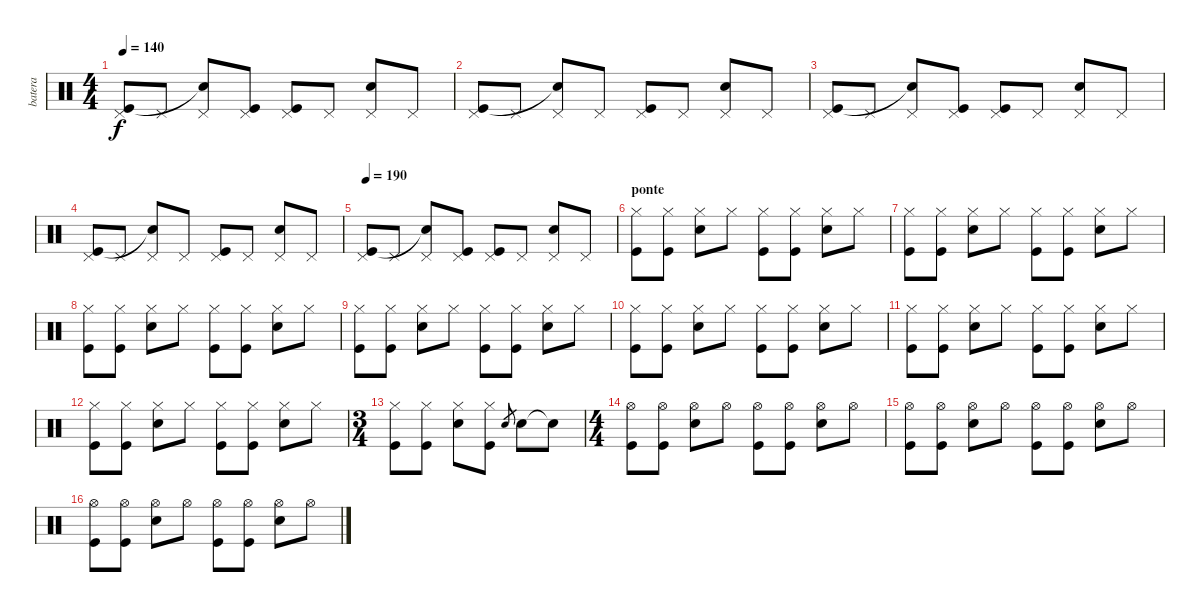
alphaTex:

\track ("batera" "batera") {instrument percussion}
\staff {score}
\articulation defaults
\ts (4 4)
\tempo 140
\clef neutral
\ks c
("Pedal Hi-Hat (hit)" "Kick (hit)").8{dy f} "Pedal Hi-Hat (hit)".8 ("Pedal Hi-Hat (hit)" "Snare (hit)"{t}).8 ("Pedal Hi-Hat (hit)" "Kick (hit)").8 ("Pedal Hi-Hat (hit)" "Kick (hit)").8 "Pedal Hi-Hat (hit)".8 ("Pedal Hi-Hat (hit)" "Snare (hit) 2").8 "Pedal Hi-Hat (hit)".8 |
("Pedal Hi-Hat (hit)" "Kick (hit)").8 "Pedal Hi-Hat (hit)".8 ("Pedal Hi-Hat (hit)" "Snare (hit)"{t}).8 "Pedal Hi-Hat (hit)".8 ("Pedal Hi-Hat (hit)" "Kick (hit)").8 "Pedal Hi-Hat (hit)".8 ("Pedal Hi-Hat (hit)" "Snare (hit) 2").8 "Pedal Hi-Hat (hit)".8 |
("Pedal Hi-Hat (hit)" "Kick (hit)").8 "Pedal Hi-Hat (hit)".8 ("Pedal Hi-Hat (hit)" "Snare (hit)"{t}).8 ("Pedal Hi-Hat (hit)" "Kick (hit)").8 ("Pedal Hi-Hat (hit)" "Kick (hit)").8 "Pedal Hi-Hat (hit)".8 ("Pedal Hi-Hat (hit)" "Snare (hit) 2").8 "Pedal Hi-Hat (hit)".8 |
("Pedal Hi-Hat (hit)" "Kick (hit)").8 "Pedal Hi-Hat (hit)".8 ("Pedal Hi-Hat (hit)" "Snare (hit)"{t}).8 "Pedal Hi-Hat (hit)".8 ("Pedal Hi-Hat (hit)" "Kick (hit)").8 "Pedal Hi-Hat (hit)".8 ("Pedal Hi-Hat (hit)" "Snare (hit) 2").8 "Pedal Hi-Hat (hit)".8 |
\tempo 190
("Pedal Hi-Hat (hit)" "Kick (hit)").8 "Pedal Hi-Hat (hit)".8 ("Pedal Hi-Hat (hit)" "Snare (hit)"{t}).8 ("Pedal Hi-Hat (hit)" "Kick (hit)").8 ("Pedal Hi-Hat (hit)" "Kick (hit)").8 "Pedal Hi-Hat (hit)".8 ("Pedal Hi-Hat (hit)" "Snare (hit) 2").8 "Pedal Hi-Hat (hit)".8 |
\section ("" "ponte")
("Hi-Hat (closed)" "Kick (hit)").8 ("Hi-Hat (closed)" "Kick (hit)").8 ("Hi-Hat (closed)" "Snare (hit) 2").8 "Hi-Hat (closed)".8 ("Hi-Hat (closed)" "Kick (hit)").8 ("Hi-Hat (closed)" "Kick (hit)").8 ("Hi-Hat (closed)" "Snare (hit) 2").8 "Hi-Hat (closed)".8 |
("Hi-Hat (closed)" "Kick (hit)").8 ("Hi-Hat (closed)" "Kick (hit)").8 ("Hi-Hat (closed)" "Snare (hit) 2").8 "Hi-Hat (closed)".8 ("Hi-Hat (closed)" "Kick (hit)").8 ("Hi-Hat (closed)" "Kick (hit)").8 ("Hi-Hat (closed)" "Snare (hit) 2").8 "Hi-Hat (closed)".8 |
("Hi-Hat (closed)" "Kick (hit)").8 ("Hi-Hat (closed)" "Kick (hit)").8 ("Hi-Hat (closed)" "Snare (hit) 2").8 "Hi-Hat (closed)".8 ("Hi-Hat (closed)" "Kick (hit)").8 ("Hi-Hat (closed)" "Kick (hit)").8 ("Hi-Hat (closed)" "Snare (hit) 2").8 "Hi-Hat (closed)".8 |
("Hi-Hat (closed)" "Kick (hit)").8 ("Hi-Hat (closed)" "Kick (hit)").8 ("Hi-Hat (closed)" "Snare (hit) 2").8 "Hi-Hat (closed)".8 ("Hi-Hat (closed)" "Kick (hit)").8 ("Hi-Hat (closed)" "Kick (hit)").8 ("Hi-Hat (closed)" "Snare (hit) 2").8 "Hi-Hat (closed)".8 |
("Hi-Hat (closed)" "Kick (hit)").8 ("Hi-Hat (closed)" "Kick (hit)").8 ("Hi-Hat (closed)" "Snare (hit) 2").8 "Hi-Hat (closed)".8 ("Hi-Hat (closed)" "Kick (hit)").8 ("Hi-Hat (closed)" "Kick (hit)").8 ("Hi-Hat (closed)" "Snare (hit) 2").8 "Hi-Hat (closed)".8 |
("Hi-Hat (closed)" "Kick (hit)").8 ("Hi-Hat (closed)" "Kick (hit)").8 ("Hi-Hat (closed)" "Snare (hit) 2").8 "Hi-Hat (closed)".8 ("Hi-Hat (closed)" "Kick (hit)").8 ("Hi-Hat (closed)" "Kick (hit)").8 ("Hi-Hat (closed)" "Snare (hit) 2").8 "Hi-Hat (closed)".8 |
("Hi-Hat (closed)" "Kick (hit)").8 ("Hi-Hat (closed)" "Kick (hit)").8 ("Hi-Hat (closed)" "Snare (hit) 2").8 "Hi-Hat (closed)".8 ("Hi-Hat (closed)" "Kick (hit)").8 ("Hi-Hat (closed)" "Kick (hit)").8 ("Hi-Hat (closed)" "Snare (hit) 2").8 "Hi-Hat (closed)".8 |
\ts (3 4)
("Hi-Hat (closed)" "Kick (hit)").8 ("Hi-Hat (closed)" "Kick (hit)").8 ("Hi-Hat (closed)" "Snare (hit) 2").8 ("Hi-Hat (closed)" "Kick (hit)").8 "Snare (hit) 2".8{gr} "Snare (hit) 2".8 "Snare (hit)"{t}.8 |
\ts (4 4)
("Hi-Hat (open)" "Kick (hit)").8 ("Hi-Hat (open)" "Kick (hit)").8 ("Hi-Hat (open)" "Snare (hit) 2").8 "Hi-Hat (open)".8 ("Hi-Hat (open)" "Kick (hit)").8 ("Hi-Hat (open)" "Kick (hit)").8 ("Hi-Hat (open)" "Snare (hit) 2").8 "Hi-Hat (open)".8 |
("Hi-Hat (open)" "Kick (hit)").8 ("Hi-Hat (open)" "Kick (hit)").8 ("Hi-Hat (open)" "Snare (hit) 2").8 "Hi-Hat (open)".8 ("Hi-Hat (open)" "Kick (hit)").8 ("Hi-Hat (open)" "Kick (hit)").8 ("Hi-Hat (open)" "Snare (hit) 2").8 "Hi-Hat (open)".8 |
("Hi-Hat (open)" "Kick (hit)").8 ("Hi-Hat (open)" "Kick (hit)").8 ("Hi-Hat (open)" "Snare (hit) 2").8 "Hi-Hat (open)".8 ("Hi-Hat (open)" "Kick (hit)").8 ("Hi-Hat (open)" "Kick (hit)").8 ("Hi-Hat (open)" "Snare (hit) 2").8 "Hi-Hat (open)".8
